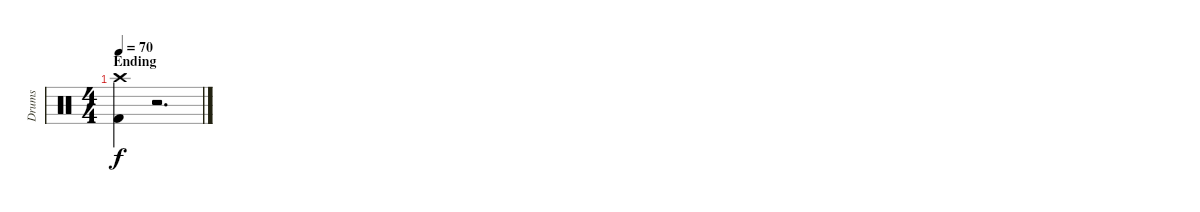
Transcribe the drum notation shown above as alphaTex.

\track ("Drums" "Drums") {instrument percussion}
\staff {score}
\articulation defaults
\ts (4 4)
\section ("" "Ending")
\tempo 70
\clef neutral
\ks c
("Crash high (hit)" "Kick (hit) 2").4{dy f} r.2{d}
